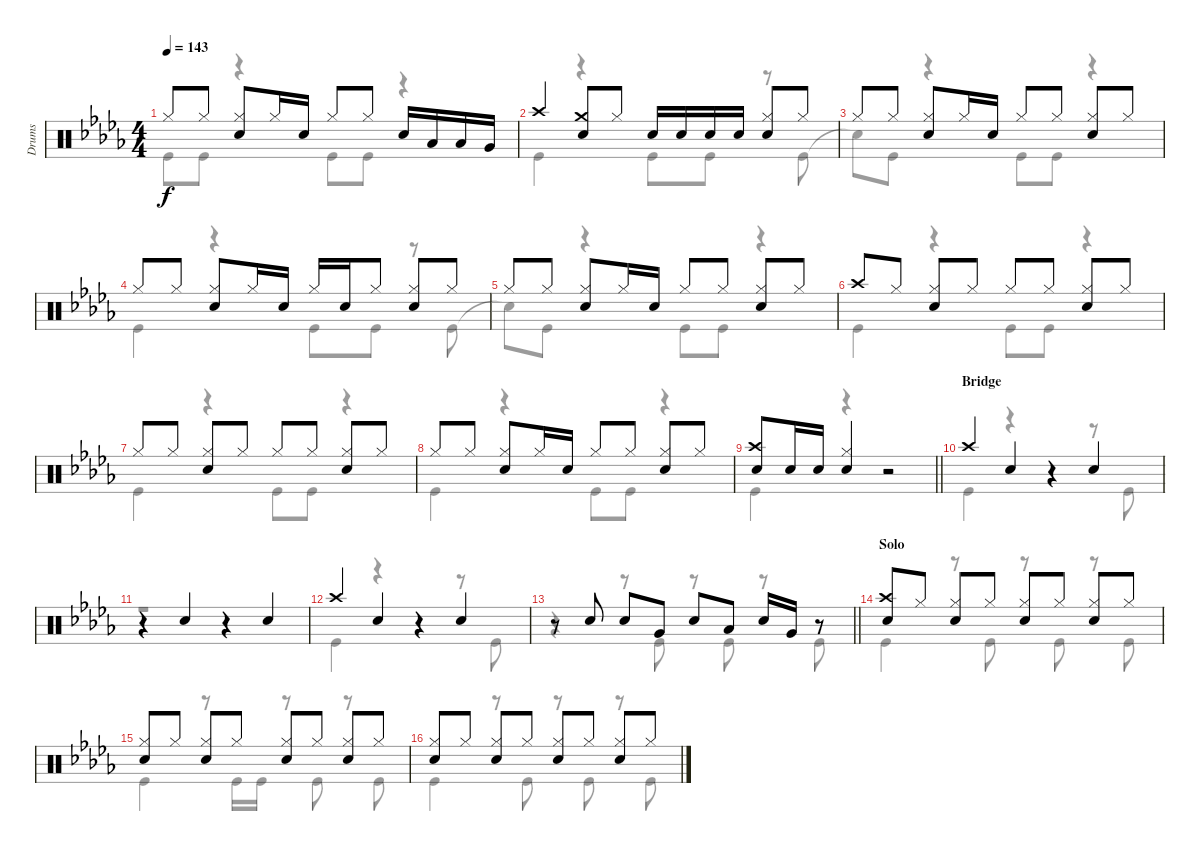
\track ("Drums" "Drums") {instrument percussion}
\staff {score}
\articulation defaults
\voice
\ts (4 4)
\tempo 143
\clef neutral
\ks db "Hi-Hat (closed)".8{dy f} "Hi-Hat (closed)".8
("Hi-Hat (closed)" "Snare (hit) 2").8 "Hi-Hat (closed)".16 "Snare (hit) 2".16 "Hi-Hat (closed)".8 "Hi-Hat (closed)".8 "Snare (hit) 2".16 "Low Tom (hit)".16 "Low Tom (hit)".16 "Very Low Tom (hit)".16 |
"Crash high (hit)".4 ("Crash medium (hit)" "Snare (hit) 2").8 "Hi-Hat (closed)".8 "Snare (hit) 2".16 "Snare (hit) 2".16 "Snare (hit) 2".16 "Snare (hit) 2".16 ("Hi-Hat (closed)" "Snare (hit) 2").8 "Hi-Hat (closed)".8 |
"Hi-Hat (closed)".8 "Hi-Hat (closed)".8 ("Hi-Hat (closed)" "Snare (hit) 2").8 "Hi-Hat (closed)".16 "Snare (hit) 2".16 "Hi-Hat (closed)".8 "Hi-Hat (closed)".8 ("Hi-Hat (closed)" "Snare (hit) 2").8 "Hi-Hat (closed)".8 |
"Hi-Hat (closed)".8 "Hi-Hat (closed)".8 ("Hi-Hat (closed)" "Snare (hit) 2").8 "Hi-Hat (closed)".16 "Snare (hit) 2".16 "Hi-Hat (closed)".16 "Snare (hit) 2".16 "Hi-Hat (closed)".8 ("Hi-Hat (closed)" "Snare (hit) 2").8 "Hi-Hat (closed)".8 |
"Hi-Hat (closed)".8 "Hi-Hat (closed)".8 ("Hi-Hat (closed)" "Snare (hit) 2").8 "Hi-Hat (closed)".16 "Snare (hit) 2".16 "Hi-Hat (closed)".8 "Hi-Hat (closed)".8 ("Hi-Hat (closed)" "Snare (hit) 2").8 "Hi-Hat (closed)".8 |
"Crash high (hit)".8 "Hi-Hat (closed)".8 ("Hi-Hat (closed)" "Snare (hit) 2").8 "Hi-Hat (closed)".8 "Hi-Hat (closed)".8 "Hi-Hat (closed)".8 ("Hi-Hat (closed)" "Snare (hit) 2").8 "Hi-Hat (closed)".8 |
"Hi-Hat (closed)".8 "Hi-Hat (closed)".8 ("Hi-Hat (closed)" "Snare (hit) 2").8 "Hi-Hat (closed)".8 "Hi-Hat (closed)".8 "Hi-Hat (closed)".8 ("Hi-Hat (closed)" "Snare (hit) 2").8 "Hi-Hat (closed)".8 |
"Hi-Hat (closed)".8 "Hi-Hat (closed)".8 ("Hi-Hat (closed)" "Snare (hit) 2").8 "Hi-Hat (closed)".16 "Snare (hit) 2".16 "Hi-Hat (closed)".8 "Hi-Hat (closed)".8 ("Hi-Hat (closed)" "Snare (hit) 2").8 "Hi-Hat (closed)".8 |
\barLineRight lightlight
("Crash high (hit)" "Snare (hit) 2").8 "Snare (hit) 2".16 "Snare (hit) 2".16 ("Snare (hit) 2" "Hi-Hat (closed)").4 r.2 |
\section ("" "Bridge")
"Crash high (hit)".4 "Snare (hit) 2".4 r.4 "Snare (hit) 2".4 |
r.4 "Snare (hit) 2".4 r.4 "Snare (hit) 2".4 |
"Crash high (hit)".4 "Snare (hit) 2".4 r.4 "Snare (hit) 2".4 |
\barLineRight lightlight
r.8 "Snare (hit) 2".8 "Snare (hit) 2".8 "Very Low Tom (hit)".8 "Snare (hit) 2".8 "Low Tom (hit)".8 "Snare (hit) 2".16 "Very Low Tom (hit)".16 r.8 |
\section ("" "Solo")
("Crash high (hit)" "Snare (hit) 2").8 "Hi-Hat (closed)".8 ("Hi-Hat (closed)" "Snare (hit) 2").8 "Hi-Hat (closed)".8 ("Hi-Hat (closed)" "Snare (hit) 2").8 "Hi-Hat (closed)".8 ("Hi-Hat (closed)" "Snare (hit) 2").8 "Hi-Hat (closed)".8 |
("Hi-Hat (closed)" "Snare (hit) 2").8 "Hi-Hat (closed)".8 ("Hi-Hat (closed)" "Snare (hit) 2").8 "Hi-Hat (closed)".8 ("Hi-Hat (closed)" "Snare (hit) 2").8 "Hi-Hat (closed)".8 ("Hi-Hat (closed)" "Snare (hit) 2").8 "Hi-Hat (closed)".8 |
("Hi-Hat (closed)" "Snare (hit) 2").8 "Hi-Hat (closed)".8 ("Hi-Hat (closed)" "Snare (hit) 2").8 "Hi-Hat (closed)".8 ("Hi-Hat (closed)" "Snare (hit) 2").8 "Hi-Hat (closed)".8 ("Hi-Hat (closed)" "Snare (hit) 2").8 "Hi-Hat (closed)".8
\voice
\clef neutral
\ottava regular
\simile none
\ks db "Kick (hit)".8{dy f} "Kick (hit)".8
r.4 "Kick (hit)".8 "Kick (hit)".8 r.4 |
"Kick (hit)".4 r.4 "Kick (hit)".8 "Kick (hit)".8 r.8 "Kick (hit)".8 |
"Snare (hit)"{t}.8 "Kick (hit)".8 r.4 "Kick (hit)".8 "Kick (hit)".8 r.4 |
"Kick (hit)".4 r.4 "Kick (hit)".8 "Kick (hit)".8 r.8 "Kick (hit)".8 |
"Snare (hit)"{t}.8 "Kick (hit)".8 r.4 "Kick (hit)".8 "Kick (hit)".8 r.4 |
"Kick (hit)".4 r.4 "Kick (hit)".8 "Kick (hit)".8 r.4 |
"Kick (hit)".4 r.4 "Kick (hit)".8 "Kick (hit)".8 r.4 |
"Kick (hit)".4 r.4 "Kick (hit)".8 "Kick (hit)".8 r.4 |
\barLineRight lightlight "Kick (hit)".4
r.4 r.2 |
"Kick (hit)".4 r.4 r.4 r.8 "Kick (hit)".8 |
r.1 |
"Kick (hit)".4 r.4 r.4 r.8 "Kick (hit)".8 |
\barLineRight lightlight
r.4 r.8 "Kick (hit)".8 r.8 "Kick (hit)".8 r.8 "Kick (hit)".8 |
"Kick (hit)".4 r.8 "Kick (hit)".8 r.8 "Kick (hit)".8 r.8 "Kick (hit)".8 |
"Kick (hit)".4 r.8 "Kick (hit)".16 "Kick (hit)".16 r.8 "Kick (hit)".8 r.8 "Kick (hit)".8 |
"Kick (hit)".4 r.8 "Kick (hit)".8 r.8 "Kick (hit)".8 r.8 "Kick (hit)".8
